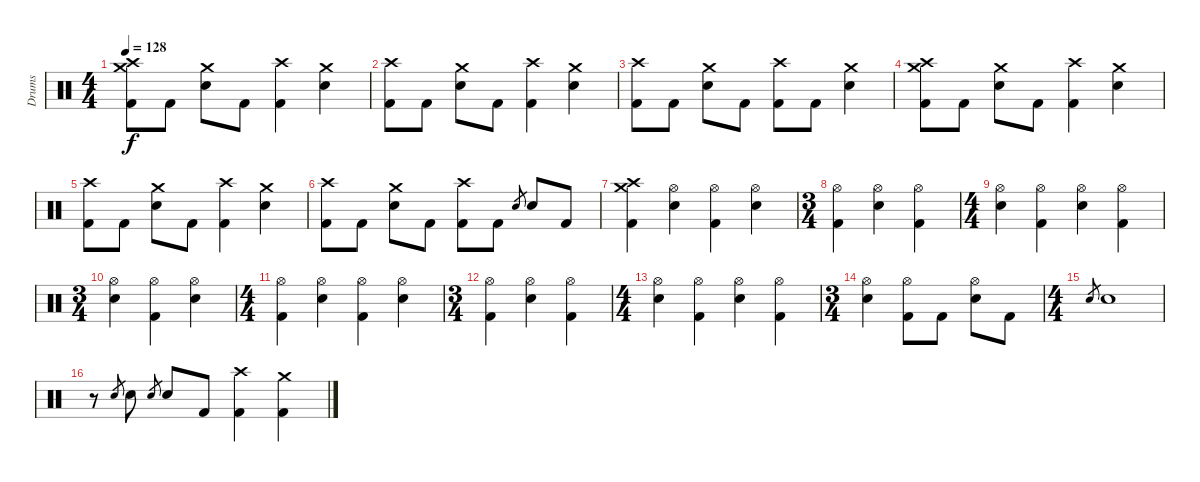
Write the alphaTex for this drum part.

\track ("Drums" "Drums") {instrument percussion}
\staff {score}
\articulation defaults
\ts (4 4)
\tempo 128
\clef neutral
\ks c
("Crash high (hit)" "Crash medium (hit)" "Kick (hit) 2").8{dy f} "Kick (hit) 2".8 ("Crash medium (hit)" "Electric Snare (hit)").8 "Kick (hit) 2".8 ("Crash high (hit)" "Kick (hit) 2").4 ("Crash medium (hit)" "Electric Snare (hit)").4 |
("Crash high (hit)" "Kick (hit) 2").8 "Kick (hit) 2".8 ("Crash medium (hit)" "Electric Snare (hit)").8 "Kick (hit) 2".8 ("Crash high (hit)" "Kick (hit) 2").4 ("Crash medium (hit)" "Electric Snare (hit)").4 |
("Crash high (hit)" "Kick (hit) 2").8 "Kick (hit) 2".8 ("Crash medium (hit)" "Electric Snare (hit)").8 "Kick (hit) 2".8 ("Crash high (hit)" "Kick (hit) 2").8 "Kick (hit) 2".8 ("Crash medium (hit)" "Electric Snare (hit)").4 |
("Crash high (hit)" "Crash medium (hit)" "Kick (hit) 2").8 "Kick (hit) 2".8 ("Crash medium (hit)" "Electric Snare (hit)").8 "Kick (hit) 2".8 ("Crash high (hit)" "Kick (hit) 2").4 ("Crash medium (hit)" "Electric Snare (hit)").4 |
("Crash high (hit)" "Kick (hit) 2").8 "Kick (hit) 2".8 ("Crash medium (hit)" "Electric Snare (hit)").8 "Kick (hit) 2".8 ("Crash high (hit)" "Kick (hit) 2").4 ("Crash medium (hit)" "Electric Snare (hit)").4 |
("Crash high (hit)" "Kick (hit) 2").8 "Kick (hit) 2".8 ("Crash medium (hit)" "Electric Snare (hit)").8 "Kick (hit) 2".8 ("Crash high (hit)" "Kick (hit) 2").8 "Kick (hit) 2".8 "Electric Snare (hit)".8{gr} "Electric Snare (hit)".8 "Kick (hit) 2".8 |
("Crash high (hit)" "Crash medium (hit)" "Kick (hit) 2").4 ("Hi-Hat (open)" "Electric Snare (hit)").4 ("Hi-Hat (open)" "Kick (hit) 2").4 ("Hi-Hat (open)" "Electric Snare (hit)").4 |
\ts (3 4)
("Hi-Hat (open)" "Kick (hit) 2").4 ("Hi-Hat (open)" "Electric Snare (hit)").4 ("Hi-Hat (open)" "Kick (hit) 2").4 |
\ts (4 4)
("Hi-Hat (open)" "Electric Snare (hit)").4 ("Hi-Hat (open)" "Kick (hit) 2").4 ("Hi-Hat (open)" "Electric Snare (hit)").4 ("Hi-Hat (open)" "Kick (hit) 2").4 |
\ts (3 4)
("Hi-Hat (open)" "Electric Snare (hit)").4 ("Hi-Hat (open)" "Kick (hit) 2").4 ("Hi-Hat (open)" "Electric Snare (hit)").4 |
\ts (4 4)
("Hi-Hat (open)" "Kick (hit) 2").4 ("Hi-Hat (open)" "Electric Snare (hit)").4 ("Hi-Hat (open)" "Kick (hit) 2").4 ("Hi-Hat (open)" "Electric Snare (hit)").4 |
\ts (3 4)
("Hi-Hat (open)" "Kick (hit) 2").4 ("Hi-Hat (open)" "Electric Snare (hit)").4 ("Hi-Hat (open)" "Kick (hit) 2").4 |
\ts (4 4)
("Hi-Hat (open)" "Electric Snare (hit)").4 ("Hi-Hat (open)" "Kick (hit) 2").4 ("Hi-Hat (open)" "Electric Snare (hit)").4 ("Hi-Hat (open)" "Kick (hit) 2").4 |
\ts (3 4)
("Hi-Hat (open)" "Electric Snare (hit)").4 ("Hi-Hat (open)" "Kick (hit) 2").8 "Kick (hit) 2".8 ("Hi-Hat (open)" "Electric Snare (hit)").8 "Kick (hit) 2".8 |
\ts (4 4)
"Electric Snare (hit)".8{gr} "Electric Snare (hit)".1 |
r.8 "Electric Snare (hit)".8{gr} "Electric Snare (hit)".8 "Electric Snare (hit)".8{gr} "Electric Snare (hit)".8 "Kick (hit) 2".8 ("Crash high (hit)" "Kick (hit) 2").4 ("Crash medium (hit)" "Kick (hit) 2").4
